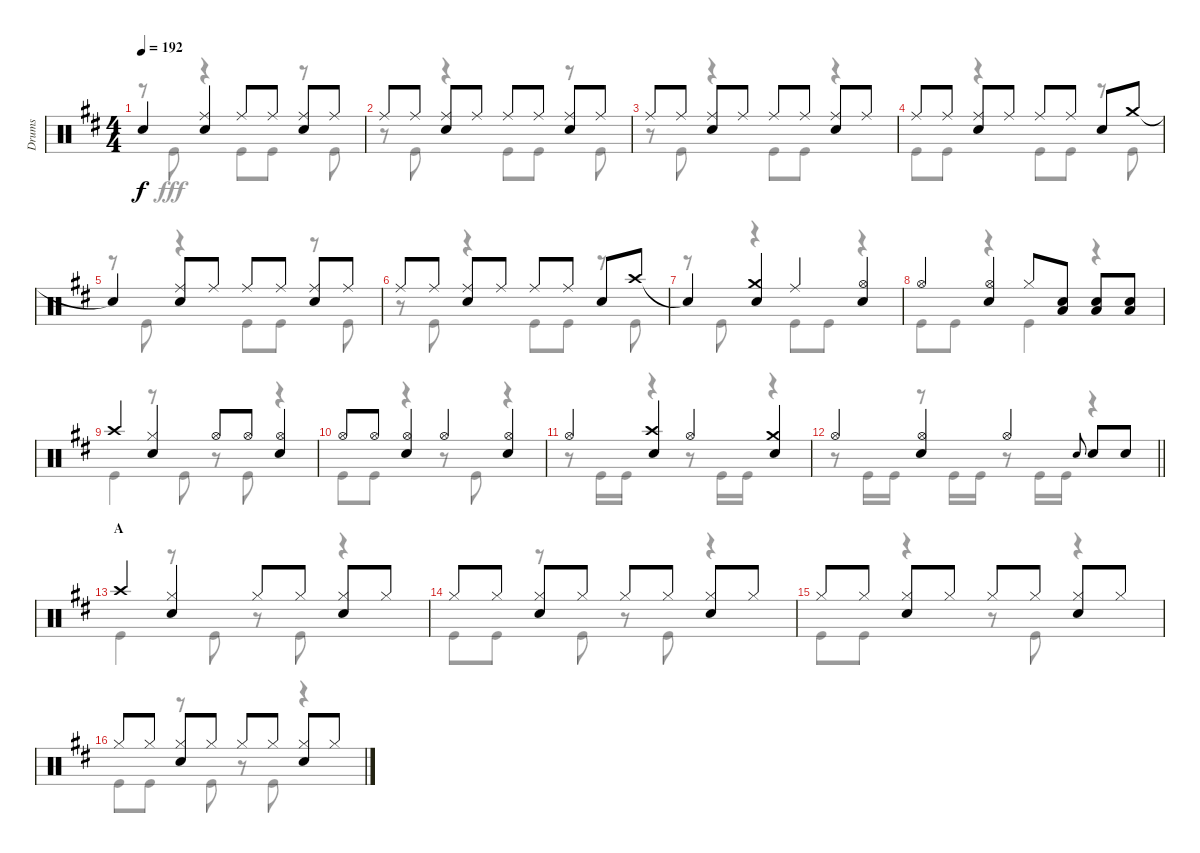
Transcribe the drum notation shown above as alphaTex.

\track ("Drums" "Drums") {instrument percussion}
\staff {score}
\articulation defaults
\voice
\ts (4 4)
\tempo 192
\clef neutral
\ks d "Snare (hit)"{t}.4{dy f}
("Ride (middle)" "Snare (hit) 2").4 "Ride (middle)".8 "Ride (middle)".8 ("Ride (middle)" "Snare (hit) 2").8 "Ride (middle)".8 |
"Ride (middle)".8 "Ride (middle)".8 ("Ride (middle)" "Snare (hit) 2").8 "Ride (middle)".8 "Ride (middle)".8 "Ride (middle)".8 ("Ride (middle)" "Snare (hit) 2").8 "Ride (middle)".8 |
"Ride (middle)".8 "Ride (middle)".8 ("Ride (middle)" "Snare (hit) 2").8 "Ride (middle)".8 "Ride (middle)".8 "Ride (middle)".8 ("Ride (middle)" "Snare (hit) 2").8 "Ride (middle)".8 |
"Ride (middle)".8 "Ride (middle)".8 ("Ride (middle)" "Snare (hit) 2").8 "Ride (middle)".8 "Ride (middle)".8 "Ride (middle)".8 "Snare (hit) 2".8 "Crash medium (hit)".8 |
"Snare (hit)"{t}.4 ("Ride (middle)" "Snare (hit) 2").8 "Ride (middle)".8 "Ride (middle)".8 "Ride (middle)".8 ("Ride (middle)" "Snare (hit) 2").8 "Ride (middle)".8 |
"Ride (middle)".8 "Ride (middle)".8 ("Ride (middle)" "Snare (hit) 2").8 "Ride (middle)".8 "Ride (middle)".8 "Ride (middle)".8 "Snare (hit) 2".8 "Crash high (hit)".8 |
"Snare (hit)"{t}.4 ("Crash medium (hit)" "Snare (hit) 2").4 "Ride (middle)".4 ("Hi-Hat (open)" "Snare (hit) 2").4 |
"Hi-Hat (open)".4 ("Hi-Hat (open)" "Snare (hit) 2").4 "Hi-Hat (closed)".8 ("Snare (hit) 2" "Low Tom (hit)").8 ("Snare (hit) 2" "Low Tom (hit)").8 ("Snare (hit) 2" "Low Tom (hit)").8 |
"Crash high (hit)".4 ("Hi-Hat (closed)" "Snare (hit) 2").4 "Hi-Hat (open)".8 "Hi-Hat (open)".8 ("Hi-Hat (open)" "Snare (hit) 2").4 |
"Hi-Hat (open)".8 "Hi-Hat (open)".8 ("Hi-Hat (open)" "Snare (hit) 2").4 "Hi-Hat (open)".4 ("Hi-Hat (open)" "Snare (hit) 2").4 |
"Hi-Hat (open)".4 ("Crash high (hit)" "Snare (hit) 2").4 "Hi-Hat (open)".4 ("Crash medium (hit)" "Snare (hit) 2").4 |
\barLineRight lightlight "Hi-Hat (open)".4
("Hi-Hat (open)" "Snare (hit) 2").4 "Hi-Hat (open)".4 "Snare (hit) 2".8{gr onbeat} "Snare (hit) 2".8 "Snare (hit) 2".8 |
\section ("" "A")
"Crash high (hit)".4 ("Hi-Hat (closed)" "Snare (hit) 2").4 "Hi-Hat (closed)".8 "Hi-Hat (closed)".8 ("Hi-Hat (closed)" "Snare (hit) 2").8 "Hi-Hat (closed)".8 |
"Hi-Hat (closed)".8 "Hi-Hat (closed)".8 ("Hi-Hat (closed)" "Snare (hit) 2").8 "Hi-Hat (closed)".8 "Hi-Hat (closed)".8 "Hi-Hat (closed)".8 ("Hi-Hat (closed)" "Snare (hit) 2").8 "Hi-Hat (closed)".8 |
"Hi-Hat (closed)".8 "Hi-Hat (closed)".8 ("Hi-Hat (closed)" "Snare (hit) 2").8 "Hi-Hat (closed)".8 "Hi-Hat (closed)".8 "Hi-Hat (closed)".8 ("Hi-Hat (closed)" "Snare (hit) 2").8 "Hi-Hat (closed)".8 |
"Hi-Hat (closed)".8 "Hi-Hat (closed)".8 ("Hi-Hat (closed)" "Snare (hit) 2").8 "Hi-Hat (closed)".8 "Hi-Hat (closed)".8 "Hi-Hat (closed)".8 ("Hi-Hat (closed)" "Snare (hit) 2").8 "Hi-Hat (closed)".8
\voice
\clef neutral
\ottava regular
\simile none
\ks d
r.8{dy fff} "Kick (hit)".8 r.4 "Kick (hit)".8 "Kick (hit)".8 r.8 "Kick (hit)".8 |
r.8 "Kick (hit)".8 r.4 "Kick (hit)".8 "Kick (hit)".8 r.8 "Kick (hit)".8 |
r.8 "Kick (hit)".8 r.4 "Kick (hit)".8 "Kick (hit)".8 r.4 |
"Kick (hit)".8 "Kick (hit)".8 r.4 "Kick (hit)".8 "Kick (hit)".8 r.8 "Kick (hit)".8 |
r.8 "Kick (hit)".8 r.4 "Kick (hit)".8 "Kick (hit)".8 r.8 "Kick (hit)".8 |
r.8 "Kick (hit)".8 r.4 "Kick (hit)".8 "Kick (hit)".8 r.8 "Kick (hit)".8 |
r.8 "Kick (hit)".8 r.4 "Kick (hit)".8 "Kick (hit)".8 r.4 |
"Kick (hit)".8 "Kick (hit)".8 r.4 "Kick (hit)".4 r.4 |
"Kick (hit)".4 r.8 "Kick (hit)".8 r.8 "Kick (hit)".8 r.4 |
"Kick (hit)".8 "Kick (hit)".8 r.4 r.8 "Kick (hit)".8 r.4 |
r.8 "Kick (hit)".16 "Kick (hit)".16 r.4 r.8 "Kick (hit)".16 "Kick (hit)".16 r.4 |
\barLineRight lightlight
r.8 "Kick (hit)".16 "Kick (hit)".16 r.8 "Kick (hit)".16 "Kick (hit)".16 r.8 "Kick (hit)".16 "Kick (hit)".16 r.4 |
"Kick (hit)".4 r.8 "Kick (hit)".8 r.8 "Kick (hit)".8 r.4 |
"Kick (hit)".8 "Kick (hit)".8 r.8 "Kick (hit)".8 r.8 "Kick (hit)".8 r.4 |
"Kick (hit)".8 "Kick (hit)".8 r.4 r.8 "Kick (hit)".8 r.4 |
"Kick (hit)".8 "Kick (hit)".8 r.8 "Kick (hit)".8 r.8 "Kick (hit)".8 r.4
